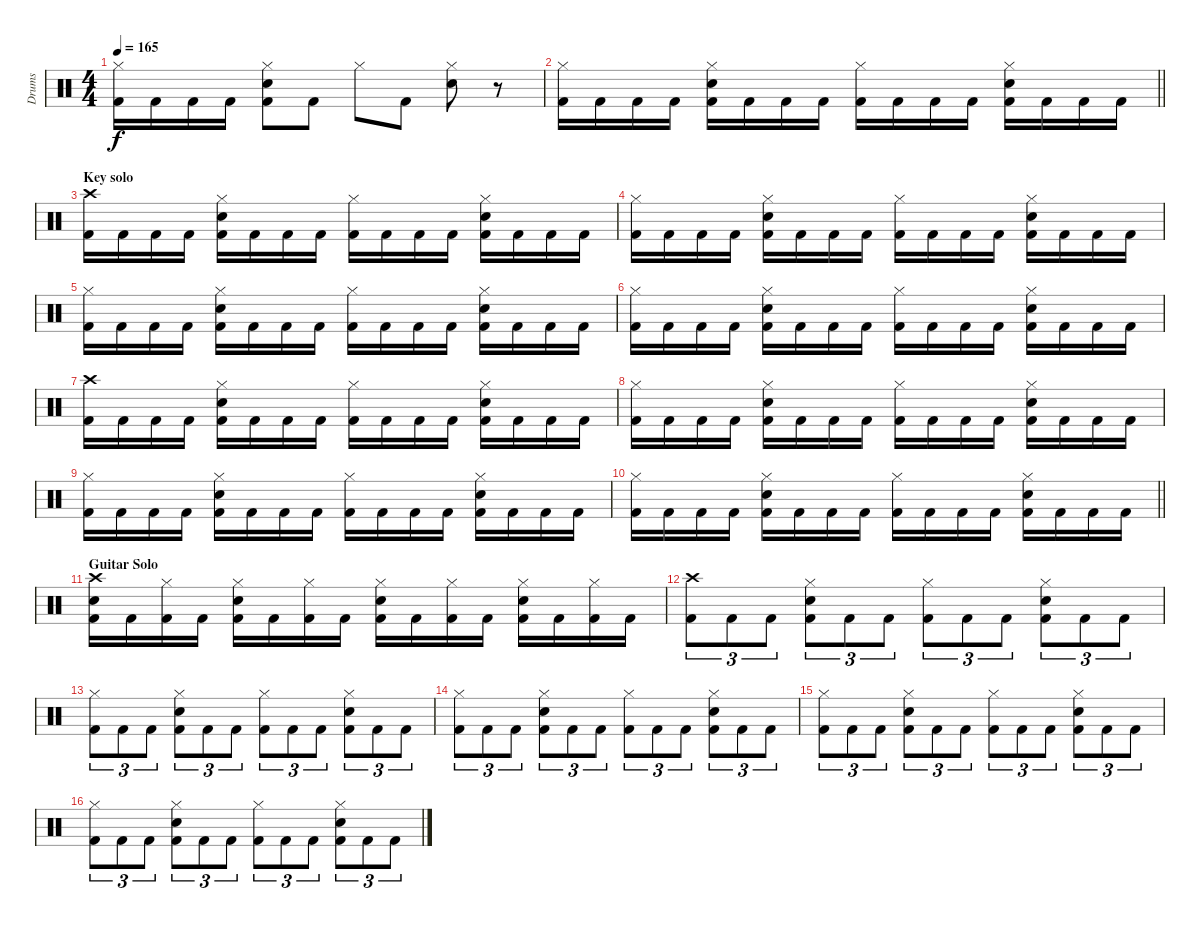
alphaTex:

\track ("Drums" "Drums") {instrument percussion}
\staff {score}
\articulation defaults
\ts (4 4)
\tempo 165
\clef neutral
\ks c
("Hi-Hat (closed)" "Kick (hit) 2").16{dy f} "Kick (hit) 2".16 "Kick (hit) 2".16 "Kick (hit) 2".16 ("Hi-Hat (closed)" "Electric Snare (hit)" "Kick (hit) 2").8 "Kick (hit) 2".8 "Hi-Hat (closed)".8 "Kick (hit) 2".8 ("Hi-Hat (closed)" "Electric Snare (hit)").8 r.8 |
\barLineRight lightlight
("Hi-Hat (closed)" "Kick (hit) 2").16 "Kick (hit) 2".16 "Kick (hit) 2".16 "Kick (hit) 2".16 ("Hi-Hat (closed)" "Electric Snare (hit)" "Kick (hit) 2").16 "Kick (hit) 2".16 "Kick (hit) 2".16 "Kick (hit) 2".16 ("Hi-Hat (closed)" "Kick (hit) 2").16 "Kick (hit) 2".16 "Kick (hit) 2".16 "Kick (hit) 2".16 ("Hi-Hat (closed)" "Electric Snare (hit)" "Kick (hit) 2").16 "Kick (hit) 2".16 "Kick (hit) 2".16 "Kick (hit) 2".16 |
\section ("" "Key solo")
("Crash high (hit)" "Kick (hit) 2").16 "Kick (hit) 2".16 "Kick (hit) 2".16 "Kick (hit) 2".16 ("Hi-Hat (closed)" "Electric Snare (hit)" "Kick (hit) 2").16 "Kick (hit) 2".16 "Kick (hit) 2".16 "Kick (hit) 2".16 ("Hi-Hat (closed)" "Kick (hit) 2").16 "Kick (hit) 2".16 "Kick (hit) 2".16 "Kick (hit) 2".16 ("Hi-Hat (closed)" "Electric Snare (hit)" "Kick (hit) 2").16 "Kick (hit) 2".16 "Kick (hit) 2".16 "Kick (hit) 2".16 |
("Hi-Hat (closed)" "Kick (hit) 2").16 "Kick (hit) 2".16 "Kick (hit) 2".16 "Kick (hit) 2".16 ("Hi-Hat (closed)" "Electric Snare (hit)" "Kick (hit) 2").16 "Kick (hit) 2".16 "Kick (hit) 2".16 "Kick (hit) 2".16 ("Hi-Hat (closed)" "Kick (hit) 2").16 "Kick (hit) 2".16 "Kick (hit) 2".16 "Kick (hit) 2".16 ("Hi-Hat (closed)" "Electric Snare (hit)" "Kick (hit) 2").16 "Kick (hit) 2".16 "Kick (hit) 2".16 "Kick (hit) 2".16 |
("Hi-Hat (closed)" "Kick (hit) 2").16 "Kick (hit) 2".16 "Kick (hit) 2".16 "Kick (hit) 2".16 ("Hi-Hat (closed)" "Electric Snare (hit)" "Kick (hit) 2").16 "Kick (hit) 2".16 "Kick (hit) 2".16 "Kick (hit) 2".16 ("Hi-Hat (closed)" "Kick (hit) 2").16 "Kick (hit) 2".16 "Kick (hit) 2".16 "Kick (hit) 2".16 ("Hi-Hat (closed)" "Electric Snare (hit)" "Kick (hit) 2").16 "Kick (hit) 2".16 "Kick (hit) 2".16 "Kick (hit) 2".16 |
("Hi-Hat (closed)" "Kick (hit) 2").16 "Kick (hit) 2".16 "Kick (hit) 2".16 "Kick (hit) 2".16 ("Hi-Hat (closed)" "Electric Snare (hit)" "Kick (hit) 2").16 "Kick (hit) 2".16 "Kick (hit) 2".16 "Kick (hit) 2".16 ("Hi-Hat (closed)" "Kick (hit) 2").16 "Kick (hit) 2".16 "Kick (hit) 2".16 "Kick (hit) 2".16 ("Hi-Hat (closed)" "Electric Snare (hit)" "Kick (hit) 2").16 "Kick (hit) 2".16 "Kick (hit) 2".16 "Kick (hit) 2".16 |
("Crash high (hit)" "Kick (hit) 2").16 "Kick (hit) 2".16 "Kick (hit) 2".16 "Kick (hit) 2".16 ("Hi-Hat (closed)" "Electric Snare (hit)" "Kick (hit) 2").16 "Kick (hit) 2".16 "Kick (hit) 2".16 "Kick (hit) 2".16 ("Hi-Hat (closed)" "Kick (hit) 2").16 "Kick (hit) 2".16 "Kick (hit) 2".16 "Kick (hit) 2".16 ("Hi-Hat (closed)" "Electric Snare (hit)" "Kick (hit) 2").16 "Kick (hit) 2".16 "Kick (hit) 2".16 "Kick (hit) 2".16 |
("Hi-Hat (closed)" "Kick (hit) 2").16 "Kick (hit) 2".16 "Kick (hit) 2".16 "Kick (hit) 2".16 ("Hi-Hat (closed)" "Electric Snare (hit)" "Kick (hit) 2").16 "Kick (hit) 2".16 "Kick (hit) 2".16 "Kick (hit) 2".16 ("Hi-Hat (closed)" "Kick (hit) 2").16 "Kick (hit) 2".16 "Kick (hit) 2".16 "Kick (hit) 2".16 ("Hi-Hat (closed)" "Electric Snare (hit)" "Kick (hit) 2").16 "Kick (hit) 2".16 "Kick (hit) 2".16 "Kick (hit) 2".16 |
("Hi-Hat (closed)" "Kick (hit) 2").16 "Kick (hit) 2".16 "Kick (hit) 2".16 "Kick (hit) 2".16 ("Hi-Hat (closed)" "Electric Snare (hit)" "Kick (hit) 2").16 "Kick (hit) 2".16 "Kick (hit) 2".16 "Kick (hit) 2".16 ("Hi-Hat (closed)" "Kick (hit) 2").16 "Kick (hit) 2".16 "Kick (hit) 2".16 "Kick (hit) 2".16 ("Hi-Hat (closed)" "Electric Snare (hit)" "Kick (hit) 2").16 "Kick (hit) 2".16 "Kick (hit) 2".16 "Kick (hit) 2".16 |
\barLineRight lightlight
("Hi-Hat (closed)" "Kick (hit) 2").16 "Kick (hit) 2".16 "Kick (hit) 2".16 "Kick (hit) 2".16 ("Hi-Hat (closed)" "Electric Snare (hit)" "Kick (hit) 2").16 "Kick (hit) 2".16 "Kick (hit) 2".16 "Kick (hit) 2".16 ("Hi-Hat (closed)" "Kick (hit) 2").16 "Kick (hit) 2".16 "Kick (hit) 2".16 "Kick (hit) 2".16 ("Hi-Hat (closed)" "Electric Snare (hit)" "Kick (hit) 2").16 "Kick (hit) 2".16 "Kick (hit) 2".16 "Kick (hit) 2".16 |
\section ("" "Guitar Solo")
("Crash high (hit)" "Electric Snare (hit)" "Kick (hit) 2").16 "Kick (hit) 2".16 ("Hi-Hat (closed)" "Kick (hit) 2").16 "Kick (hit) 2".16 ("Hi-Hat (closed)" "Electric Snare (hit)" "Kick (hit) 2").16 "Kick (hit) 2".16 ("Hi-Hat (closed)" "Kick (hit) 2").16 "Kick (hit) 2".16 ("Hi-Hat (closed)" "Electric Snare (hit)" "Kick (hit) 2").16 "Kick (hit) 2".16 ("Hi-Hat (closed)" "Kick (hit) 2").16 "Kick (hit) 2".16 ("Hi-Hat (closed)" "Electric Snare (hit)" "Kick (hit) 2").16 "Kick (hit) 2".16 ("Hi-Hat (closed)" "Kick (hit) 2").16 "Kick (hit) 2".16 |
("Crash high (hit)" "Kick (hit) 2").8{tu (3 2)} "Kick (hit) 2".8{tu (3 2)} "Kick (hit) 2".8{tu (3 2)} ("Hi-Hat (closed)" "Electric Snare (hit)" "Kick (hit) 2").8{tu (3 2)} "Kick (hit) 2".8{tu (3 2)} "Kick (hit) 2".8{tu (3 2)} ("Hi-Hat (closed)" "Kick (hit) 2").8{tu (3 2)} "Kick (hit) 2".8{tu (3 2)} "Kick (hit) 2".8{tu (3 2)} ("Hi-Hat (closed)" "Electric Snare (hit)" "Kick (hit) 2").8{tu (3 2)} "Kick (hit) 2".8{tu (3 2)} "Kick (hit) 2".8{tu (3 2)} |
("Hi-Hat (closed)" "Kick (hit) 2").8{tu (3 2)} "Kick (hit) 2".8{tu (3 2)} "Kick (hit) 2".8{tu (3 2)} ("Hi-Hat (closed)" "Electric Snare (hit)" "Kick (hit) 2").8{tu (3 2)} "Kick (hit) 2".8{tu (3 2)} "Kick (hit) 2".8{tu (3 2)} ("Hi-Hat (closed)" "Kick (hit) 2").8{tu (3 2)} "Kick (hit) 2".8{tu (3 2)} "Kick (hit) 2".8{tu (3 2)} ("Hi-Hat (closed)" "Electric Snare (hit)" "Kick (hit) 2").8{tu (3 2)} "Kick (hit) 2".8{tu (3 2)} "Kick (hit) 2".8{tu (3 2)} |
("Hi-Hat (closed)" "Kick (hit) 2").8{tu (3 2)} "Kick (hit) 2".8{tu (3 2)} "Kick (hit) 2".8{tu (3 2)} ("Hi-Hat (closed)" "Electric Snare (hit)" "Kick (hit) 2").8{tu (3 2)} "Kick (hit) 2".8{tu (3 2)} "Kick (hit) 2".8{tu (3 2)} ("Hi-Hat (closed)" "Kick (hit) 2").8{tu (3 2)} "Kick (hit) 2".8{tu (3 2)} "Kick (hit) 2".8{tu (3 2)} ("Hi-Hat (closed)" "Electric Snare (hit)" "Kick (hit) 2").8{tu (3 2)} "Kick (hit) 2".8{tu (3 2)} "Kick (hit) 2".8{tu (3 2)} |
("Hi-Hat (closed)" "Kick (hit) 2").8{tu (3 2)} "Kick (hit) 2".8{tu (3 2)} "Kick (hit) 2".8{tu (3 2)} ("Hi-Hat (closed)" "Electric Snare (hit)" "Kick (hit) 2").8{tu (3 2)} "Kick (hit) 2".8{tu (3 2)} "Kick (hit) 2".8{tu (3 2)} ("Hi-Hat (closed)" "Kick (hit) 2").8{tu (3 2)} "Kick (hit) 2".8{tu (3 2)} "Kick (hit) 2".8{tu (3 2)} ("Hi-Hat (closed)" "Electric Snare (hit)" "Kick (hit) 2").8{tu (3 2)} "Kick (hit) 2".8{tu (3 2)} "Kick (hit) 2".8{tu (3 2)} |
("Hi-Hat (closed)" "Kick (hit) 2").8{tu (3 2)} "Kick (hit) 2".8{tu (3 2)} "Kick (hit) 2".8{tu (3 2)} ("Hi-Hat (closed)" "Electric Snare (hit)" "Kick (hit) 2").8{tu (3 2)} "Kick (hit) 2".8{tu (3 2)} "Kick (hit) 2".8{tu (3 2)} ("Hi-Hat (closed)" "Kick (hit) 2").8{tu (3 2)} "Kick (hit) 2".8{tu (3 2)} "Kick (hit) 2".8{tu (3 2)} ("Hi-Hat (closed)" "Electric Snare (hit)" "Kick (hit) 2").8{tu (3 2)} "Kick (hit) 2".8{tu (3 2)} "Kick (hit) 2".8{tu (3 2)}
